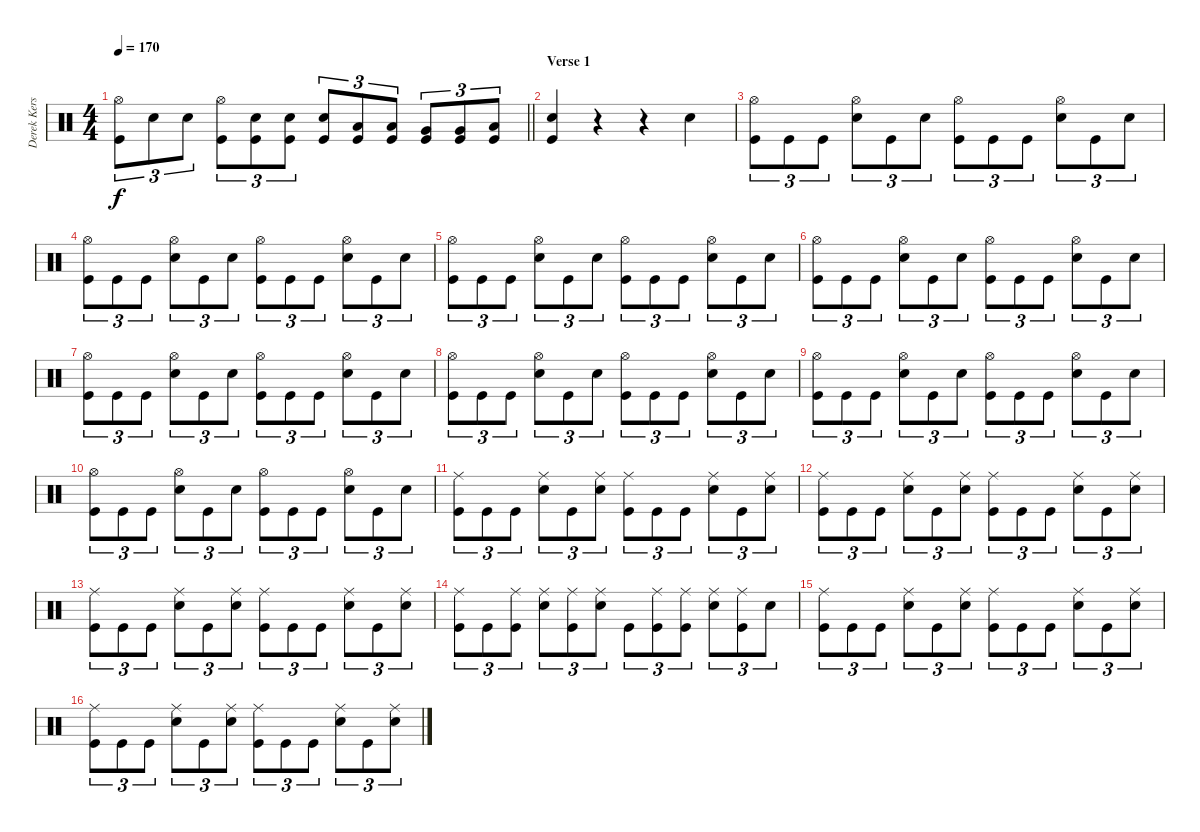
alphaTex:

\track ("Derek Kerswill" "Derek Kers") {instrument percussion}
\staff {score}
\articulation defaults
\ts (4 4)
\tempo 170
\clef neutral
\barLineRight lightlight
\ks c
("Hi-Hat (open)" "Kick (hit)").8{tu (3 2) dy f} "Snare (hit) 2".8{tu (3 2)} "Snare (hit) 2".8{tu (3 2)} ("Hi-Hat (open)" "Kick (hit)").8{tu (3 2)} ("Snare (hit) 2" "Kick (hit)").8{tu (3 2)} ("Snare (hit) 2" "Kick (hit)").8{tu (3 2)} ("Snare (hit) 2" "Kick (hit)").8{tu (3 2)} ("Low Tom (hit)" "Kick (hit)").8{tu (3 2)} ("Low Tom (hit)" "Kick (hit)").8{tu (3 2)} ("Very Low Tom (hit)" "Kick (hit)").8{tu (3 2)} ("Very Low Tom (hit)" "Kick (hit)").8{tu (3 2)} ("Low Floor Tom (hit)" "Kick (hit)").8{tu (3 2)} |
\section ("" "Verse 1")
("Kick (hit)" "Snare (hit) 2").4 r.4 r.4 "Snare (hit) 2".4 |
("Hi-Hat (open)" "Kick (hit)").8{tu (3 2)} "Kick (hit)".8{tu (3 2)} "Kick (hit)".8{tu (3 2)} ("Hi-Hat (open)" "Snare (hit) 2").8{tu (3 2)} "Kick (hit)".8{tu (3 2)} "Snare (hit) 2".8{tu (3 2)} ("Hi-Hat (open)" "Kick (hit)").8{tu (3 2)} "Kick (hit)".8{tu (3 2)} "Kick (hit)".8{tu (3 2)} ("Hi-Hat (open)" "Snare (hit) 2").8{tu (3 2)} "Kick (hit)".8{tu (3 2)} "Snare (hit) 2".8{tu (3 2)} |
("Hi-Hat (open)" "Kick (hit)").8{tu (3 2)} "Kick (hit)".8{tu (3 2)} "Kick (hit)".8{tu (3 2)} ("Hi-Hat (open)" "Snare (hit) 2").8{tu (3 2)} "Kick (hit)".8{tu (3 2)} "Snare (hit) 2".8{tu (3 2)} ("Hi-Hat (open)" "Kick (hit)").8{tu (3 2)} "Kick (hit)".8{tu (3 2)} "Kick (hit)".8{tu (3 2)} ("Hi-Hat (open)" "Snare (hit) 2").8{tu (3 2)} "Kick (hit)".8{tu (3 2)} "Snare (hit) 2".8{tu (3 2)} |
("Hi-Hat (open)" "Kick (hit)").8{tu (3 2)} "Kick (hit)".8{tu (3 2)} "Kick (hit)".8{tu (3 2)} ("Hi-Hat (open)" "Snare (hit) 2").8{tu (3 2)} "Kick (hit)".8{tu (3 2)} "Snare (hit) 2".8{tu (3 2)} ("Hi-Hat (open)" "Kick (hit)").8{tu (3 2)} "Kick (hit)".8{tu (3 2)} "Kick (hit)".8{tu (3 2)} ("Hi-Hat (open)" "Snare (hit) 2").8{tu (3 2)} "Kick (hit)".8{tu (3 2)} "Snare (hit) 2".8{tu (3 2)} |
("Hi-Hat (open)" "Kick (hit)").8{tu (3 2)} "Kick (hit)".8{tu (3 2)} "Kick (hit)".8{tu (3 2)} ("Hi-Hat (open)" "Snare (hit) 2").8{tu (3 2)} "Kick (hit)".8{tu (3 2)} "Snare (hit) 2".8{tu (3 2)} ("Hi-Hat (open)" "Kick (hit)").8{tu (3 2)} "Kick (hit)".8{tu (3 2)} "Kick (hit)".8{tu (3 2)} ("Hi-Hat (open)" "Snare (hit) 2").8{tu (3 2)} "Kick (hit)".8{tu (3 2)} "Snare (hit) 2".8{tu (3 2)} |
("Hi-Hat (open)" "Kick (hit)").8{tu (3 2)} "Kick (hit)".8{tu (3 2)} "Kick (hit)".8{tu (3 2)} ("Hi-Hat (open)" "Snare (hit) 2").8{tu (3 2)} "Kick (hit)".8{tu (3 2)} "Snare (hit) 2".8{tu (3 2)} ("Hi-Hat (open)" "Kick (hit)").8{tu (3 2)} "Kick (hit)".8{tu (3 2)} "Kick (hit)".8{tu (3 2)} ("Hi-Hat (open)" "Snare (hit) 2").8{tu (3 2)} "Kick (hit)".8{tu (3 2)} "Snare (hit) 2".8{tu (3 2)} |
("Hi-Hat (open)" "Kick (hit)").8{tu (3 2)} "Kick (hit)".8{tu (3 2)} "Kick (hit)".8{tu (3 2)} ("Hi-Hat (open)" "Snare (hit) 2").8{tu (3 2)} "Kick (hit)".8{tu (3 2)} "Snare (hit) 2".8{tu (3 2)} ("Hi-Hat (open)" "Kick (hit)").8{tu (3 2)} "Kick (hit)".8{tu (3 2)} "Kick (hit)".8{tu (3 2)} ("Hi-Hat (open)" "Snare (hit) 2").8{tu (3 2)} "Kick (hit)".8{tu (3 2)} "Snare (hit) 2".8{tu (3 2)} |
("Hi-Hat (open)" "Kick (hit)").8{tu (3 2)} "Kick (hit)".8{tu (3 2)} "Kick (hit)".8{tu (3 2)} ("Hi-Hat (open)" "Snare (hit) 2").8{tu (3 2)} "Kick (hit)".8{tu (3 2)} "Snare (hit) 2".8{tu (3 2)} ("Hi-Hat (open)" "Kick (hit)").8{tu (3 2)} "Kick (hit)".8{tu (3 2)} "Kick (hit)".8{tu (3 2)} ("Hi-Hat (open)" "Snare (hit) 2").8{tu (3 2)} "Kick (hit)".8{tu (3 2)} "Snare (hit) 2".8{tu (3 2)} |
("Hi-Hat (open)" "Kick (hit)").8{tu (3 2)} "Kick (hit)".8{tu (3 2)} "Kick (hit)".8{tu (3 2)} ("Hi-Hat (open)" "Snare (hit) 2").8{tu (3 2)} "Kick (hit)".8{tu (3 2)} "Snare (hit) 2".8{tu (3 2)} ("Hi-Hat (open)" "Kick (hit)").8{tu (3 2)} "Kick (hit)".8{tu (3 2)} "Kick (hit)".8{tu (3 2)} ("Hi-Hat (open)" "Snare (hit) 2").8{tu (3 2)} "Kick (hit)".8{tu (3 2)} "Snare (hit) 2".8{tu (3 2)} |
("Ride (middle)" "Kick (hit)").8{tu (3 2)} "Kick (hit)".8{tu (3 2)} "Kick (hit)".8{tu (3 2)} ("Ride (middle)" "Snare (hit) 2").8{tu (3 2)} "Kick (hit)".8{tu (3 2)} ("Ride (middle)" "Snare (hit) 2").8{tu (3 2)} ("Ride (middle)" "Kick (hit)").8{tu (3 2)} "Kick (hit)".8{tu (3 2)} "Kick (hit)".8{tu (3 2)} ("Ride (middle)" "Snare (hit) 2").8{tu (3 2)} "Kick (hit)".8{tu (3 2)} ("Ride (middle)" "Snare (hit) 2").8{tu (3 2)} |
("Ride (middle)" "Kick (hit)").8{tu (3 2)} "Kick (hit)".8{tu (3 2)} "Kick (hit)".8{tu (3 2)} ("Ride (middle)" "Snare (hit) 2").8{tu (3 2)} "Kick (hit)".8{tu (3 2)} ("Ride (middle)" "Snare (hit) 2").8{tu (3 2)} ("Ride (middle)" "Kick (hit)").8{tu (3 2)} "Kick (hit)".8{tu (3 2)} "Kick (hit)".8{tu (3 2)} ("Ride (middle)" "Snare (hit) 2").8{tu (3 2)} "Kick (hit)".8{tu (3 2)} ("Ride (middle)" "Snare (hit) 2").8{tu (3 2)} |
("Ride (middle)" "Kick (hit)").8{tu (3 2)} "Kick (hit)".8{tu (3 2)} "Kick (hit)".8{tu (3 2)} ("Ride (middle)" "Snare (hit) 2").8{tu (3 2)} "Kick (hit)".8{tu (3 2)} ("Ride (middle)" "Snare (hit) 2").8{tu (3 2)} ("Ride (middle)" "Kick (hit)").8{tu (3 2)} "Kick (hit)".8{tu (3 2)} "Kick (hit)".8{tu (3 2)} ("Ride (middle)" "Snare (hit) 2").8{tu (3 2)} "Kick (hit)".8{tu (3 2)} ("Ride (middle)" "Snare (hit) 2").8{tu (3 2)} |
("Ride (middle)" "Kick (hit)").8{tu (3 2)} "Kick (hit)".8{tu (3 2)} ("Ride (middle)" "Kick (hit)").8{tu (3 2)} ("Ride (middle)" "Snare (hit) 2").8{tu (3 2)} ("Ride (middle)" "Kick (hit)").8{tu (3 2)} ("Ride (middle)" "Snare (hit) 2").8{tu (3 2)} "Kick (hit)".8{tu (3 2)} ("Ride (middle)" "Kick (hit)").8{tu (3 2)} ("Ride (middle)" "Kick (hit)").8{tu (3 2)} ("Ride (middle)" "Snare (hit) 2").8{tu (3 2)} ("Ride (middle)" "Kick (hit)").8{tu (3 2)} "Snare (hit) 2".8{tu (3 2)} |
("Ride (middle)" "Kick (hit)").8{tu (3 2)} "Kick (hit)".8{tu (3 2)} "Kick (hit)".8{tu (3 2)} ("Ride (middle)" "Snare (hit) 2").8{tu (3 2)} "Kick (hit)".8{tu (3 2)} ("Ride (middle)" "Snare (hit) 2").8{tu (3 2)} ("Ride (middle)" "Kick (hit)").8{tu (3 2)} "Kick (hit)".8{tu (3 2)} "Kick (hit)".8{tu (3 2)} ("Ride (middle)" "Snare (hit) 2").8{tu (3 2)} "Kick (hit)".8{tu (3 2)} ("Ride (middle)" "Snare (hit) 2").8{tu (3 2)} |
("Ride (middle)" "Kick (hit)").8{tu (3 2)} "Kick (hit)".8{tu (3 2)} "Kick (hit)".8{tu (3 2)} ("Ride (middle)" "Snare (hit) 2").8{tu (3 2)} "Kick (hit)".8{tu (3 2)} ("Ride (middle)" "Snare (hit) 2").8{tu (3 2)} ("Ride (middle)" "Kick (hit)").8{tu (3 2)} "Kick (hit)".8{tu (3 2)} "Kick (hit)".8{tu (3 2)} ("Ride (middle)" "Snare (hit) 2").8{tu (3 2)} "Kick (hit)".8{tu (3 2)} ("Ride (middle)" "Snare (hit) 2").8{tu (3 2)}
